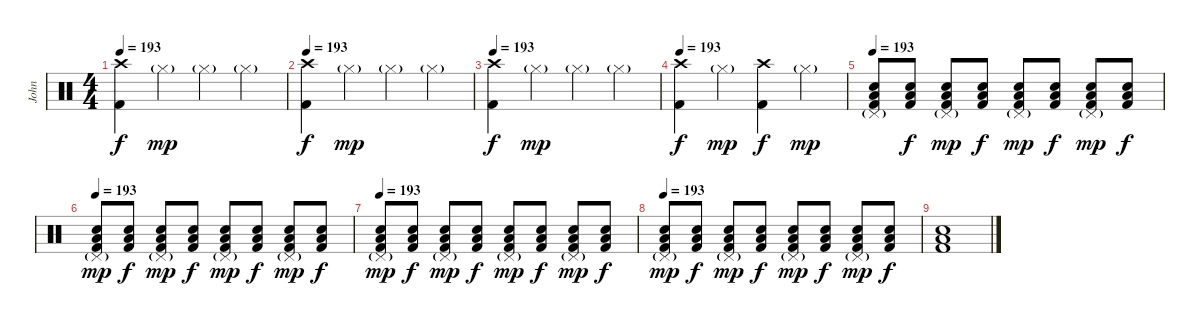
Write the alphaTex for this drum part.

\track ("John " "John ") {instrument percussion}
\staff {score}
\articulation defaults
\ts (4 4)
\tempo 193
\clef neutral
\ks c
("Crash high (hit)" "Kick (hit) 2").4{dy f} "Hi-Hat (closed)"{g}.4{dy mp} "Hi-Hat (closed)"{g}.4 "Hi-Hat (closed)"{g}.4 |
\tempo 193
("Crash high (hit)" "Kick (hit) 2").4{dy f} "Hi-Hat (closed)"{g}.4{dy mp} "Hi-Hat (closed)"{g}.4 "Hi-Hat (closed)"{g}.4 |
\tempo 193
("Crash high (hit)" "Kick (hit) 2").4{dy f} "Hi-Hat (closed)"{g}.4{dy mp} "Hi-Hat (closed)"{g}.4 "Hi-Hat (closed)"{g}.4 |
\tempo 193
("Crash high (hit)" "Kick (hit) 2").4{dy f} "Hi-Hat (closed)"{g}.4{dy mp} ("Crash high (hit)" "Kick (hit) 2").4{dy f} "Hi-Hat (closed)"{g}.4{dy mp} |
\tempo 193
("Pedal Hi-Hat (hit)"{g} "Low Floor Tom (hit)" "Snare (hit) 2" "Kick (hit) 2").8 ("Low Floor Tom (hit)" "Snare (hit) 2" "Kick (hit) 2").8{dy f} ("Pedal Hi-Hat (hit)"{g} "Low Floor Tom (hit)" "Snare (hit) 2" "Kick (hit) 2").8{dy mp} ("Low Floor Tom (hit)" "Snare (hit) 2" "Kick (hit) 2").8{dy f} ("Pedal Hi-Hat (hit)"{g} "Low Floor Tom (hit)" "Snare (hit) 2" "Kick (hit) 2").8{dy mp} ("Low Floor Tom (hit)" "Snare (hit) 2" "Kick (hit) 2").8{dy f} ("Pedal Hi-Hat (hit)"{g} "Low Floor Tom (hit)" "Snare (hit) 2" "Kick (hit) 2").8{dy mp} ("Low Floor Tom (hit)" "Snare (hit) 2" "Kick (hit) 2").8{dy f} |
\tempo 193
("Pedal Hi-Hat (hit)"{g} "Low Floor Tom (hit)" "Snare (hit) 2" "Kick (hit) 2").8{dy mp} ("Low Floor Tom (hit)" "Snare (hit) 2" "Kick (hit) 2").8{dy f} ("Pedal Hi-Hat (hit)"{g} "Low Floor Tom (hit)" "Snare (hit) 2" "Kick (hit) 2").8{dy mp} ("Low Floor Tom (hit)" "Snare (hit) 2" "Kick (hit) 2").8{dy f} ("Pedal Hi-Hat (hit)"{g} "Low Floor Tom (hit)" "Snare (hit) 2" "Kick (hit) 2").8{dy mp} ("Low Floor Tom (hit)" "Snare (hit) 2" "Kick (hit) 2").8{dy f} ("Pedal Hi-Hat (hit)"{g} "Low Floor Tom (hit)" "Snare (hit) 2" "Kick (hit) 2").8{dy mp} ("Low Floor Tom (hit)" "Snare (hit) 2" "Kick (hit) 2").8{dy f} |
\tempo 193
("Pedal Hi-Hat (hit)"{g} "Low Floor Tom (hit)" "Snare (hit) 2" "Kick (hit) 2").8{dy mp} ("Low Floor Tom (hit)" "Snare (hit) 2" "Kick (hit) 2").8{dy f} ("Pedal Hi-Hat (hit)"{g} "Low Floor Tom (hit)" "Snare (hit) 2" "Kick (hit) 2").8{dy mp} ("Low Floor Tom (hit)" "Snare (hit) 2" "Kick (hit) 2").8{dy f} ("Pedal Hi-Hat (hit)"{g} "Low Floor Tom (hit)" "Snare (hit) 2" "Kick (hit) 2").8{dy mp} ("Low Floor Tom (hit)" "Snare (hit) 2" "Kick (hit) 2").8{dy f} ("Pedal Hi-Hat (hit)"{g} "Low Floor Tom (hit)" "Snare (hit) 2" "Kick (hit) 2").8{dy mp} ("Low Floor Tom (hit)" "Snare (hit) 2" "Kick (hit) 2").8{dy f} |
\tempo 193
("Pedal Hi-Hat (hit)"{g} "Low Floor Tom (hit)" "Snare (hit) 2" "Kick (hit) 2").8{dy mp} ("Low Floor Tom (hit)" "Snare (hit) 2" "Kick (hit) 2").8{dy f} ("Pedal Hi-Hat (hit)"{g} "Low Floor Tom (hit)" "Snare (hit) 2" "Kick (hit) 2").8{dy mp} ("Low Floor Tom (hit)" "Snare (hit) 2" "Kick (hit) 2").8{dy f} ("Pedal Hi-Hat (hit)"{g} "Low Floor Tom (hit)" "Snare (hit) 2" "Kick (hit) 2").8{dy mp} ("Low Floor Tom (hit)" "Snare (hit) 2" "Kick (hit) 2").8{dy f} ("Pedal Hi-Hat (hit)"{g} "Low Floor Tom (hit)" "Snare (hit) 2" "Kick (hit) 2").8{dy mp} ("Low Floor Tom (hit)" "Snare (hit) 2" "Kick (hit) 2").8{dy f} |
("Low Floor Tom (hit)" "Snare (hit) 2" "Kick (hit) 2").1
